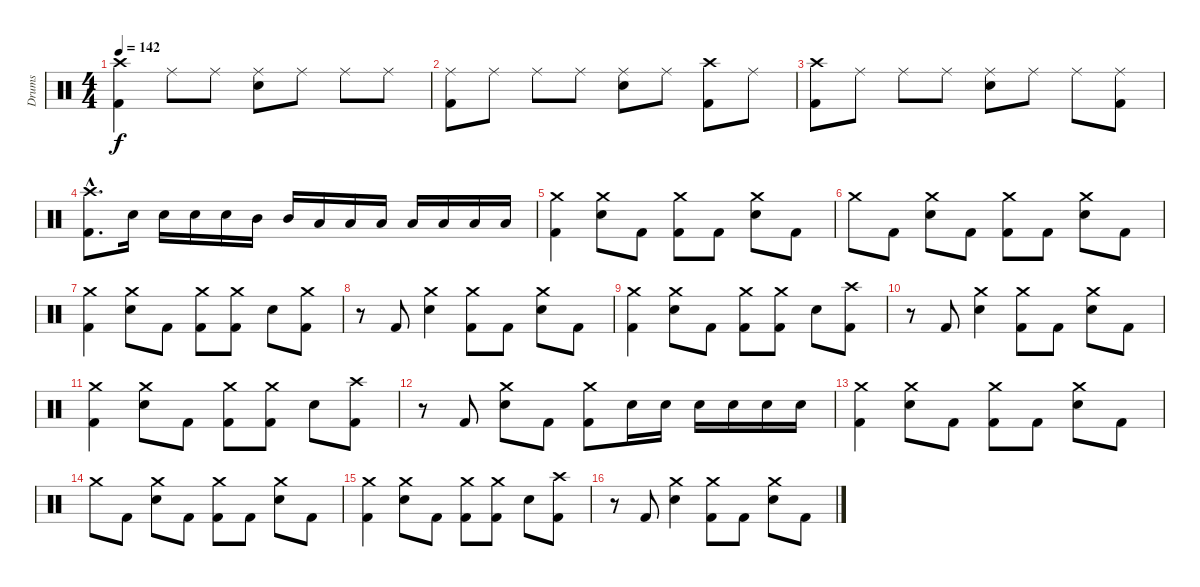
\track ("Drums" "Drums") {instrument percussion}
\staff {score}
\articulation defaults
\ts (4 4)
\tempo 142
\clef neutral
\ks c
("Crash high (hit)" "Kick (hit) 2").4{dy f} "Ride (middle)".8 "Ride (middle)".8 ("Ride (middle)" "Electric Snare (hit)").8 "Ride (middle)".8 "Ride (middle)".8 "Ride (middle)".8 |
("Ride (middle)" "Kick (hit) 2").8 "Ride (middle)".8 "Ride (middle)".8 "Ride (middle)".8 ("Ride (middle)" "Electric Snare (hit)").8 "Ride (middle)".8 ("Crash high (hit)" "Kick (hit) 2").8 "Ride (middle)".8 |
("Crash high (hit)" "Kick (hit) 2").8 "Ride (middle)".8 "Ride (middle)".8 "Ride (middle)".8 ("Ride (middle)" "Electric Snare (hit)").8 "Ride (middle)".8 "Ride (middle)".8 ("Ride (middle)" "Kick (hit) 2").8 |
("Crash high (hit)"{hac} "Kick (hit) 2"{hac}).8{d} "Electric Snare (hit)".16 "Electric Snare (hit)".16 "Electric Snare (hit)".16 "Electric Snare (hit)".16 "Mid Tom (hit)".16 "Mid Tom (hit)".16 "Low Tom (hit)".16 "Low Tom (hit)".16 "Low Tom (hit)".16 "Low Floor Tom (hit)".16 "Low Floor Tom (hit)".16 "Low Floor Tom (hit)".16 "Low Floor Tom (hit)".16 |
("Crash medium (hit)" "Kick (hit) 2").4 ("Crash medium (hit)" "Electric Snare (hit)").8 "Kick (hit) 2".8 ("Crash medium (hit)" "Kick (hit) 2").8 "Kick (hit) 2".8 ("Crash medium (hit)" "Electric Snare (hit)").8 "Kick (hit) 2".8 |
"Crash medium (hit)".8 "Kick (hit) 2".8 ("Crash medium (hit)" "Electric Snare (hit)").8 "Kick (hit) 2".8 ("Crash medium (hit)" "Kick (hit) 2").8 "Kick (hit) 2".8 ("Crash medium (hit)" "Electric Snare (hit)").8 "Kick (hit) 2".8 |
("Crash medium (hit)" "Kick (hit) 2").4 ("Crash medium (hit)" "Electric Snare (hit)").8 "Kick (hit) 2".8 ("Crash medium (hit)" "Kick (hit) 2").8 ("Crash medium (hit)" "Kick (hit) 2").8 "Electric Snare (hit)".8 ("Crash medium (hit)" "Kick (hit) 2").8 |
r.8 "Kick (hit) 2".8 ("Crash medium (hit)" "Electric Snare (hit)").4 ("Crash medium (hit)" "Kick (hit) 2").8 "Kick (hit) 2".8 ("Crash medium (hit)" "Electric Snare (hit)").8 "Kick (hit) 2".8 |
("Crash medium (hit)" "Kick (hit) 2").4 ("Crash medium (hit)" "Electric Snare (hit)").8 "Kick (hit) 2".8 ("Crash medium (hit)" "Kick (hit) 2").8 ("Crash medium (hit)" "Kick (hit) 2").8 "Electric Snare (hit)".8 ("Crash high (hit)" "Kick (hit) 2").8 |
r.8 "Kick (hit) 2".8 ("Crash medium (hit)" "Electric Snare (hit)").4 ("Crash medium (hit)" "Kick (hit) 2").8 "Kick (hit) 2".8 ("Crash medium (hit)" "Electric Snare (hit)").8 "Kick (hit) 2".8 |
("Crash medium (hit)" "Kick (hit) 2").4 ("Crash medium (hit)" "Electric Snare (hit)").8 "Kick (hit) 2".8 ("Crash medium (hit)" "Kick (hit) 2").8 ("Crash medium (hit)" "Kick (hit) 2").8 "Electric Snare (hit)".8 ("Crash high (hit)" "Kick (hit) 2").8 |
r.8 "Kick (hit) 2".8 ("Crash medium (hit)" "Electric Snare (hit)").8 "Kick (hit) 2".8 ("Crash medium (hit)" "Kick (hit) 2").8 "Electric Snare (hit)".16 "Electric Snare (hit)".16 "Electric Snare (hit)".16 "Electric Snare (hit)".16 "Electric Snare (hit)".16 "Electric Snare (hit)".16 |
("Crash medium (hit)" "Kick (hit) 2").4 ("Crash medium (hit)" "Electric Snare (hit)").8 "Kick (hit) 2".8 ("Crash medium (hit)" "Kick (hit) 2").8 "Kick (hit) 2".8 ("Crash medium (hit)" "Electric Snare (hit)").8 "Kick (hit) 2".8 |
"Crash medium (hit)".8 "Kick (hit) 2".8 ("Crash medium (hit)" "Electric Snare (hit)").8 "Kick (hit) 2".8 ("Crash medium (hit)" "Kick (hit) 2").8 "Kick (hit) 2".8 ("Crash medium (hit)" "Electric Snare (hit)").8 "Kick (hit) 2".8 |
("Crash medium (hit)" "Kick (hit) 2").4 ("Crash medium (hit)" "Electric Snare (hit)").8 "Kick (hit) 2".8 ("Crash medium (hit)" "Kick (hit) 2").8 ("Crash medium (hit)" "Kick (hit) 2").8 "Electric Snare (hit)".8 ("Crash high (hit)" "Kick (hit) 2").8 |
r.8 "Kick (hit) 2".8 ("Crash medium (hit)" "Electric Snare (hit)").4 ("Crash medium (hit)" "Kick (hit) 2").8 "Kick (hit) 2".8 ("Crash medium (hit)" "Electric Snare (hit)").8 "Kick (hit) 2".8
